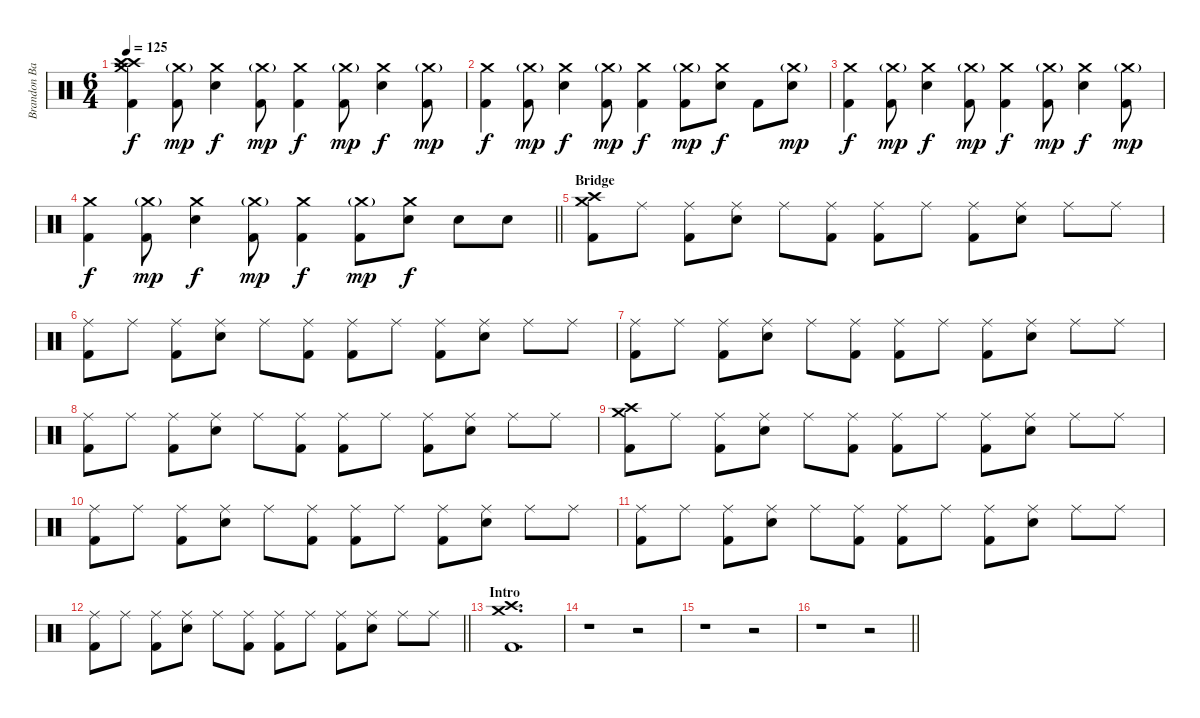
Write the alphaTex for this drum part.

\track ("Brandon Barnes" "Brandon Ba") {instrument percussion}
\staff {score}
\articulation defaults
\ts (6 4)
\tempo 125
\clef neutral
\ks c
("Crash high (hit)" "Crash high (hit)" "Crash medium (hit)" "Kick (hit) 2").4{dy f} ("Crash medium (hit)"{g} "Kick (hit) 2").8{dy mp} ("Crash medium (hit)" "Electric Snare (hit)").4{dy f} ("Crash medium (hit)"{g} "Kick (hit) 2").8{dy mp} ("Crash medium (hit)" "Kick (hit) 2").4{dy f} ("Crash medium (hit)"{g} "Kick (hit) 2").8{dy mp} ("Crash medium (hit)" "Electric Snare (hit)").4{dy f} ("Crash medium (hit)"{g} "Kick (hit) 2").8{dy mp} |
("Crash medium (hit)" "Kick (hit) 2").4{dy f} ("Crash medium (hit)"{g} "Kick (hit) 2").8{dy mp} ("Crash medium (hit)" "Electric Snare (hit)").4{dy f} ("Crash medium (hit)"{g} "Kick (hit) 2").8{dy mp} ("Crash medium (hit)" "Kick (hit) 2").4{dy f} ("Crash medium (hit)"{g} "Kick (hit) 2").8{dy mp} ("Crash medium (hit)" "Electric Snare (hit)").8{dy f} "Kick (hit) 2".8 ("Crash medium (hit)"{g} "Electric Snare (hit)").8{dy mp} |
("Crash medium (hit)" "Kick (hit) 2").4{dy f} ("Crash medium (hit)"{g} "Kick (hit) 2").8{dy mp} ("Crash medium (hit)" "Electric Snare (hit)").4{dy f} ("Crash medium (hit)"{g} "Kick (hit) 2").8{dy mp} ("Crash medium (hit)" "Kick (hit) 2").4{dy f} ("Crash medium (hit)"{g} "Kick (hit) 2").8{dy mp} ("Crash medium (hit)" "Electric Snare (hit)").4{dy f} ("Crash medium (hit)"{g} "Kick (hit) 2").8{dy mp} |
\barLineRight lightlight
("Crash medium (hit)" "Kick (hit) 2").4{dy f} ("Crash medium (hit)"{g} "Kick (hit) 2").8{dy mp} ("Crash medium (hit)" "Electric Snare (hit)").4{dy f} ("Crash medium (hit)"{g} "Kick (hit) 2").8{dy mp} ("Crash medium (hit)" "Kick (hit) 2").4{dy f} ("Crash medium (hit)"{g} "Kick (hit) 2").8{dy mp} ("Crash medium (hit)" "Electric Snare (hit)").8{dy f} "Electric Snare (hit)".8 "Electric Snare (hit)".8 |
\section ("" "Bridge")
("Crash high (hit)" "Crash medium (hit)" "Kick (hit) 2").8 "Ride (middle)".8 ("Ride (middle)" "Kick (hit) 2").8 ("Ride (middle)" "Electric Snare (hit)").8 "Ride (middle)".8 ("Ride (middle)" "Kick (hit) 2").8 ("Ride (middle)" "Kick (hit) 2").8 "Ride (middle)".8 ("Ride (middle)" "Kick (hit) 2").8 ("Ride (middle)" "Electric Snare (hit)").8 "Ride (middle)".8 "Ride (middle)".8 |
("Ride (middle)" "Kick (hit) 2").8 "Ride (middle)".8 ("Ride (middle)" "Kick (hit) 2").8 ("Ride (middle)" "Electric Snare (hit)").8 "Ride (middle)".8 ("Ride (middle)" "Kick (hit) 2").8 ("Ride (middle)" "Kick (hit) 2").8 "Ride (middle)".8 ("Ride (middle)" "Kick (hit) 2").8 ("Ride (middle)" "Electric Snare (hit)").8 "Ride (middle)".8 "Ride (middle)".8 |
("Ride (middle)" "Kick (hit) 2").8 "Ride (middle)".8 ("Ride (middle)" "Kick (hit) 2").8 ("Ride (middle)" "Electric Snare (hit)").8 "Ride (middle)".8 ("Ride (middle)" "Kick (hit) 2").8 ("Ride (middle)" "Kick (hit) 2").8 "Ride (middle)".8 ("Ride (middle)" "Kick (hit) 2").8 ("Ride (middle)" "Electric Snare (hit)").8 "Ride (middle)".8 "Ride (middle)".8 |
("Ride (middle)" "Kick (hit) 2").8 "Ride (middle)".8 ("Ride (middle)" "Kick (hit) 2").8 ("Ride (middle)" "Electric Snare (hit)").8 "Ride (middle)".8 ("Ride (middle)" "Kick (hit) 2").8 ("Ride (middle)" "Kick (hit) 2").8 "Ride (middle)".8 ("Ride (middle)" "Kick (hit) 2").8 ("Ride (middle)" "Electric Snare (hit)").8 "Ride (middle)".8 "Ride (middle)".8 |
("Crash high (hit)" "Crash medium (hit)" "Kick (hit) 2").8 "Ride (middle)".8 ("Ride (middle)" "Kick (hit) 2").8 ("Ride (middle)" "Electric Snare (hit)").8 "Ride (middle)".8 ("Ride (middle)" "Kick (hit) 2").8 ("Ride (middle)" "Kick (hit) 2").8 "Ride (middle)".8 ("Ride (middle)" "Kick (hit) 2").8 ("Ride (middle)" "Electric Snare (hit)").8 "Ride (middle)".8 "Ride (middle)".8 |
("Ride (middle)" "Kick (hit) 2").8 "Ride (middle)".8 ("Ride (middle)" "Kick (hit) 2").8 ("Ride (middle)" "Electric Snare (hit)").8 "Ride (middle)".8 ("Ride (middle)" "Kick (hit) 2").8 ("Ride (middle)" "Kick (hit) 2").8 "Ride (middle)".8 ("Ride (middle)" "Kick (hit) 2").8 ("Ride (middle)" "Electric Snare (hit)").8 "Ride (middle)".8 "Ride (middle)".8 |
("Ride (middle)" "Kick (hit) 2").8 "Ride (middle)".8 ("Ride (middle)" "Kick (hit) 2").8 ("Ride (middle)" "Electric Snare (hit)").8 "Ride (middle)".8 ("Ride (middle)" "Kick (hit) 2").8 ("Ride (middle)" "Kick (hit) 2").8 "Ride (middle)".8 ("Ride (middle)" "Kick (hit) 2").8 ("Ride (middle)" "Electric Snare (hit)").8 "Ride (middle)".8 "Ride (middle)".8 |
\barLineRight lightlight
("Ride (middle)" "Kick (hit) 2").8 "Ride (middle)".8 ("Ride (middle)" "Kick (hit) 2").8 ("Ride (middle)" "Electric Snare (hit)").8 "Ride (middle)".8 ("Ride (middle)" "Kick (hit) 2").8 ("Ride (middle)" "Kick (hit) 2").8 "Ride (middle)".8 ("Ride (middle)" "Kick (hit) 2").8 ("Ride (middle)" "Electric Snare (hit)").8 "Ride (middle)".8 "Ride (middle)".8 |
\section ("" "Intro")
("Crash high (hit)" "Crash medium (hit)" "Kick (hit) 2").1{d} |
r.1 r.2 |
r.1 r.2 |
\barLineRight lightlight
r.1 r.2
